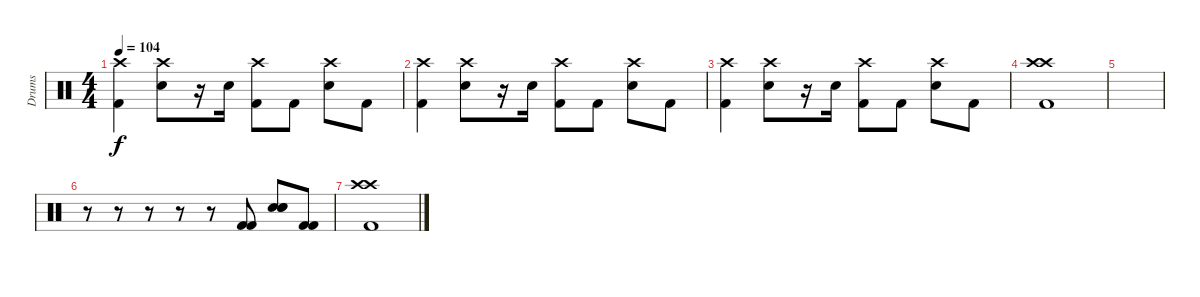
\track ("Drums" "Drums") {instrument percussion}
\staff {score}
\articulation defaults
\ts (4 4)
\tempo 104
\clef neutral
\ks c
("Crash high (hit)" "Kick (hit) 2").4{dy f} ("Crash high (hit)" "Electric Snare (hit)").8 r.16 "Electric Snare (hit)".16 ("Crash high (hit)" "Kick (hit) 2").8 "Kick (hit) 2".8 ("Crash high (hit)" "Electric Snare (hit)").8 "Kick (hit) 2".8 |
("Crash high (hit)" "Kick (hit) 2").4 ("Crash high (hit)" "Electric Snare (hit)").8 r.16 "Electric Snare (hit)".16 ("Crash high (hit)" "Kick (hit) 2").8 "Kick (hit) 2".8 ("Crash high (hit)" "Electric Snare (hit)").8 "Kick (hit) 2".8 |
("Crash high (hit)" "Kick (hit) 2").4 ("Crash high (hit)" "Electric Snare (hit)").8 r.16 "Electric Snare (hit)".16 ("Crash high (hit)" "Kick (hit) 2").8 "Kick (hit) 2".8 ("Crash high (hit)" "Electric Snare (hit)").8 "Kick (hit) 2".8 |
("Crash high (hit)" "Crash high (hit)" "Kick (hit) 2").1 |
|
r.8 r.8 r.8 r.8 r.8 ("Kick (hit) 2" "Kick (hit) 2").8 ("Electric Snare (hit)" "Electric Snare (hit)" "Electric Snare (hit)").8 ("Kick (hit) 2" "Kick (hit) 2").8 |
("Crash high (hit)" "Crash high (hit)" "Kick (hit) 2").1
